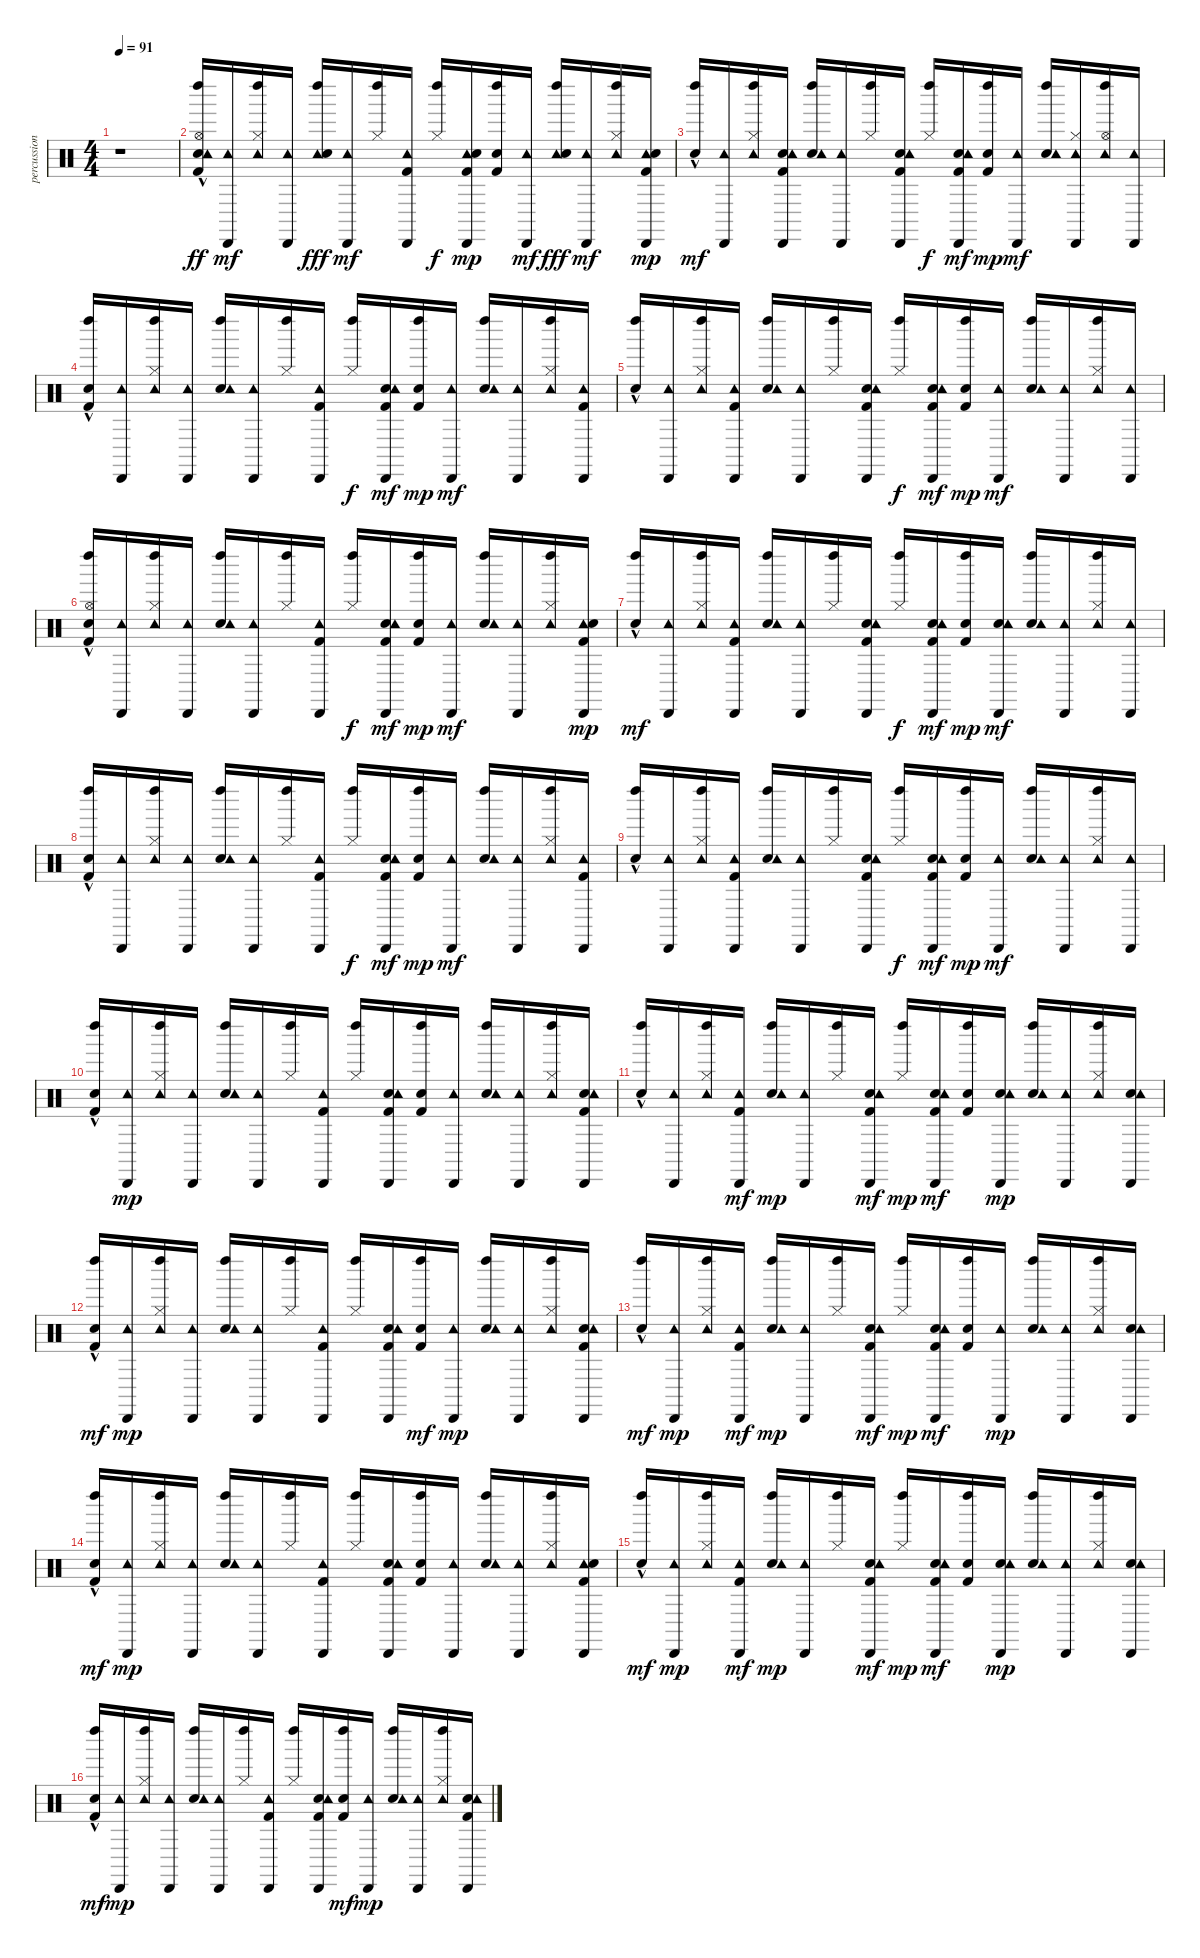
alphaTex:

\track ("percussion" "percussion") {instrument percussion}
\staff {score}
\articulation defaults
\ts (4 4)
\tempo 91
\clef neutral
\ks c
r.1{dy ff} |
("Electric Snare (hit)"{hac} "Tambourine (hit)" "Hi-Hat (open)" "Kick (hit) 2" "Left Maraca (hit)").16{volume 14 balance 8} ("Tambourine (hit)" "Cabasa (hit)").16{dy mf} ("Tambourine (hit)" "Hi-Hat (closed)" "Left Maraca (hit)").16 ("Tambourine (hit)" "Cabasa (hit)").16 ("Tambourine (hit)" "Electric Snare (hit)" "Left Maraca (hit)").16{dy fff} ("Tambourine (hit)" "Cabasa (hit)").16{dy mf} ("Hi-Hat (closed)" "Left Maraca (hit)").16 ("Tambourine (hit)" "Cabasa (hit)" "Kick (hit) 2").16 ("Hi-Hat (closed)" "Left Maraca (hit)").16{dy f} ("Tambourine (hit)" "Electric Snare (hit)" "Kick (hit) 2" "Cabasa (hit)").16{dy mp} ("Electric Snare (hit)" "Left Maraca (hit)" "Kick (hit) 2").16 ("Tambourine (hit)" "Cabasa (hit)").16{dy mf} ("Tambourine (hit)" "Electric Snare (hit)" "Left Maraca (hit)").16{dy fff} ("Tambourine (hit)" "Cabasa (hit)").16{dy mf} ("Tambourine (hit)" "Hi-Hat (closed)" "Left Maraca (hit)").16 ("Tambourine (hit)" "Electric Snare (hit)" "Kick (hit) 2" "Cabasa (hit)").16{dy mp} |
("Electric Snare (hit)"{hac} "Left Maraca (hit)").16{dy mf balance 8} ("Cabasa (hit)" "Tambourine (hit)").16 ("Hi-Hat (closed)" "Left Maraca (hit)" "Tambourine (hit)").16 ("Electric Snare (hit)" "Kick (hit) 2" "Cabasa (hit)" "Tambourine (hit)").16 ("Electric Snare (hit)" "Left Maraca (hit)" "Tambourine (hit)").16 ("Cabasa (hit)" "Tambourine (hit)").16 ("Hi-Hat (closed)" "Left Maraca (hit)").16 ("Electric Snare (hit)" "Kick (hit) 2" "Cabasa (hit)" "Tambourine (hit)").16 ("Hi-Hat (closed)" "Left Maraca (hit)").16{dy f} ("Electric Snare (hit)" "Kick (hit) 2" "Cabasa (hit)" "Tambourine (hit)").16{dy mf} ("Electric Snare (hit)" "Left Maraca (hit)" "Kick (hit) 2").16{dy mp} ("Cabasa (hit)" "Tambourine (hit)").16{dy mf} ("Electric Snare (hit)" "Left Maraca (hit)" "Tambourine (hit)").16 ("Hi-Hat (closed)" "Cabasa (hit)" "Tambourine (hit)").16 ("Tambourine (hit)" "Hi-Hat (open)" "Left Maraca (hit)").16 ("Cabasa (hit)" "Tambourine (hit)").16 |
("Electric Snare (hit)"{hac} "Left Maraca (hit)" "Kick (hit) 2").16 ("Cabasa (hit)" "Tambourine (hit)").16 ("Hi-Hat (closed)" "Left Maraca (hit)" "Tambourine (hit)").16 ("Cabasa (hit)" "Tambourine (hit)").16 ("Electric Snare (hit)" "Left Maraca (hit)" "Tambourine (hit)").16 ("Cabasa (hit)" "Tambourine (hit)").16 ("Hi-Hat (closed)" "Left Maraca (hit)").16 ("Cabasa (hit)" "Kick (hit) 2" "Tambourine (hit)").16 ("Hi-Hat (closed)" "Left Maraca (hit)").16{dy f} ("Electric Snare (hit)" "Cabasa (hit)" "Kick (hit) 2" "Tambourine (hit)").16{dy mf} ("Electric Snare (hit)" "Left Maraca (hit)" "Kick (hit) 2").16{dy mp} ("Cabasa (hit)" "Tambourine (hit)").16{dy mf} ("Electric Snare (hit)" "Left Maraca (hit)" "Tambourine (hit)").16 ("Cabasa (hit)" "Tambourine (hit)").16 ("Hi-Hat (closed)" "Left Maraca (hit)" "Tambourine (hit)").16 ("Cabasa (hit)" "Kick (hit) 2" "Tambourine (hit)").16 |
("Electric Snare (hit)"{hac} "Left Maraca (hit)").16 ("Cabasa (hit)" "Tambourine (hit)").16 ("Hi-Hat (closed)" "Left Maraca (hit)" "Tambourine (hit)").16 ("Cabasa (hit)" "Tambourine (hit)" "Kick (hit) 2").16 ("Electric Snare (hit)" "Left Maraca (hit)" "Tambourine (hit)").16 ("Cabasa (hit)" "Tambourine (hit)").16 ("Hi-Hat (closed)" "Left Maraca (hit)").16 ("Electric Snare (hit)" "Cabasa (hit)" "Tambourine (hit)" "Kick (hit) 2").16 ("Hi-Hat (closed)" "Left Maraca (hit)").16{dy f} ("Electric Snare (hit)" "Cabasa (hit)" "Tambourine (hit)" "Kick (hit) 2").16{dy mf} ("Electric Snare (hit)" "Left Maraca (hit)" "Kick (hit) 2").16{dy mp} ("Cabasa (hit)" "Tambourine (hit)").16{dy mf} ("Electric Snare (hit)" "Left Maraca (hit)" "Tambourine (hit)").16 ("Cabasa (hit)" "Tambourine (hit)").16 ("Tambourine (hit)" "Hi-Hat (closed)" "Left Maraca (hit)").16 ("Cabasa (hit)" "Tambourine (hit)").16 |
("Hi-Hat (open)" "Electric Snare (hit)"{hac} "Left Maraca (hit)" "Kick (hit) 2").16 ("Cabasa (hit)" "Tambourine (hit)").16 ("Hi-Hat (closed)" "Left Maraca (hit)" "Tambourine (hit)").16 ("Cabasa (hit)" "Tambourine (hit)").16 ("Electric Snare (hit)" "Left Maraca (hit)" "Tambourine (hit)").16 ("Cabasa (hit)" "Tambourine (hit)").16 ("Hi-Hat (closed)" "Left Maraca (hit)").16 ("Cabasa (hit)" "Kick (hit) 2" "Tambourine (hit)").16 ("Hi-Hat (closed)" "Left Maraca (hit)").16{dy f} ("Electric Snare (hit)" "Cabasa (hit)" "Kick (hit) 2" "Tambourine (hit)").16{dy mf} ("Electric Snare (hit)" "Left Maraca (hit)" "Kick (hit) 2").16{dy mp} ("Cabasa (hit)" "Tambourine (hit)").16{dy mf} ("Electric Snare (hit)" "Left Maraca (hit)" "Tambourine (hit)").16 ("Cabasa (hit)" "Tambourine (hit)").16 ("Tambourine (hit)" "Hi-Hat (closed)" "Left Maraca (hit)").16 ("Tambourine (hit)" "Electric Snare (hit)" "Cabasa (hit)" "Kick (hit) 2").16{dy mp} |
("Left Maraca (hit)" "Electric Snare (hit)"{hac}).16{dy mf} ("Tambourine (hit)" "Cabasa (hit)").16 ("Left Maraca (hit)" "Hi-Hat (closed)" "Tambourine (hit)").16 ("Tambourine (hit)" "Cabasa (hit)" "Kick (hit) 2").16 ("Left Maraca (hit)" "Electric Snare (hit)" "Tambourine (hit)").16 ("Tambourine (hit)" "Cabasa (hit)").16 ("Left Maraca (hit)" "Hi-Hat (closed)").16 ("Electric Snare (hit)" "Tambourine (hit)" "Cabasa (hit)" "Kick (hit) 2").16 ("Left Maraca (hit)" "Hi-Hat (closed)").16{dy f} ("Electric Snare (hit)" "Tambourine (hit)" "Cabasa (hit)" "Kick (hit) 2").16{dy mf} ("Left Maraca (hit)" "Electric Snare (hit)" "Kick (hit) 2").16{dy mp} ("Electric Snare (hit)" "Tambourine (hit)" "Cabasa (hit)").16{dy mf} ("Left Maraca (hit)" "Electric Snare (hit)" "Tambourine (hit)").16 ("Tambourine (hit)" "Cabasa (hit)").16 ("Left Maraca (hit)" "Tambourine (hit)" "Hi-Hat (closed)").16 ("Tambourine (hit)" "Cabasa (hit)").16 |
("Electric Snare (hit)"{hac} "Left Maraca (hit)" "Kick (hit) 2").16 ("Cabasa (hit)" "Tambourine (hit)").16 ("Hi-Hat (closed)" "Left Maraca (hit)" "Tambourine (hit)").16 ("Cabasa (hit)" "Tambourine (hit)").16 ("Electric Snare (hit)" "Left Maraca (hit)" "Tambourine (hit)").16 ("Cabasa (hit)" "Tambourine (hit)").16 ("Hi-Hat (closed)" "Left Maraca (hit)").16 ("Cabasa (hit)" "Kick (hit) 2" "Tambourine (hit)").16 ("Hi-Hat (closed)" "Left Maraca (hit)").16{dy f} ("Electric Snare (hit)" "Cabasa (hit)" "Kick (hit) 2" "Tambourine (hit)").16{dy mf} ("Electric Snare (hit)" "Left Maraca (hit)" "Kick (hit) 2").16{dy mp} ("Cabasa (hit)" "Tambourine (hit)").16{dy mf} ("Electric Snare (hit)" "Left Maraca (hit)" "Tambourine (hit)").16 ("Cabasa (hit)" "Tambourine (hit)").16 ("Tambourine (hit)" "Hi-Hat (closed)" "Left Maraca (hit)").16 ("Tambourine (hit)" "Cabasa (hit)" "Kick (hit) 2").16 |
("Left Maraca (hit)" "Electric Snare (hit)"{hac}).16 ("Tambourine (hit)" "Cabasa (hit)").16 ("Left Maraca (hit)" "Hi-Hat (closed)" "Tambourine (hit)").16 ("Tambourine (hit)" "Cabasa (hit)" "Kick (hit) 2").16 ("Left Maraca (hit)" "Electric Snare (hit)" "Tambourine (hit)").16 ("Tambourine (hit)" "Cabasa (hit)").16 ("Left Maraca (hit)" "Hi-Hat (closed)").16 ("Electric Snare (hit)" "Tambourine (hit)" "Cabasa (hit)" "Kick (hit) 2").16 ("Left Maraca (hit)" "Hi-Hat (closed)").16{dy f} ("Electric Snare (hit)" "Tambourine (hit)" "Cabasa (hit)" "Kick (hit) 2").16{dy mf} ("Left Maraca (hit)" "Electric Snare (hit)" "Kick (hit) 2").16{dy mp} ("Tambourine (hit)" "Cabasa (hit)").16{dy mf} ("Left Maraca (hit)" "Electric Snare (hit)" "Tambourine (hit)").16 ("Tambourine (hit)" "Cabasa (hit)").16 ("Left Maraca (hit)" "Tambourine (hit)" "Hi-Hat (closed)").16{volume 12} ("Tambourine (hit)" "Cabasa (hit)").16{volume 9} |
("Left Maraca (hit)" "Electric Snare (hit)"{hac} "Kick (hit) 2").16{volume 11} ("Cabasa (hit)" "Tambourine (hit)").16{dy mp volume 10} ("Hi-Hat (closed)" "Left Maraca (hit)" "Tambourine (hit)").16 ("Cabasa (hit)" "Tambourine (hit)").16 ("Electric Snare (hit)" "Left Maraca (hit)" "Tambourine (hit)").16 ("Cabasa (hit)" "Tambourine (hit)").16 ("Hi-Hat (closed)" "Left Maraca (hit)").16 ("Kick (hit) 2" "Cabasa (hit)" "Tambourine (hit)").16 ("Hi-Hat (closed)" "Left Maraca (hit)").16 ("Electric Snare (hit)" "Kick (hit) 2" "Cabasa (hit)" "Tambourine (hit)").16 ("Electric Snare (hit)" "Kick (hit) 2" "Left Maraca (hit)").16 ("Cabasa (hit)" "Tambourine (hit)").16 ("Electric Snare (hit)" "Tambourine (hit)" "Left Maraca (hit)").16 ("Cabasa (hit)" "Tambourine (hit)").16 ("Hi-Hat (closed)" "Left Maraca (hit)" "Tambourine (hit)").16 ("Electric Snare (hit)" "Kick (hit) 2" "Cabasa (hit)" "Tambourine (hit)").16 |
("Electric Snare (hit)"{hac} "Left Maraca (hit)").16 ("Tambourine (hit)" "Cabasa (hit)").16 ("Hi-Hat (closed)" "Tambourine (hit)" "Left Maraca (hit)").16 ("Tambourine (hit)" "Cabasa (hit)" "Kick (hit) 2").16{dy mf} ("Electric Snare (hit)" "Tambourine (hit)" "Left Maraca (hit)").16{dy mp} ("Tambourine (hit)" "Cabasa (hit)").16 ("Hi-Hat (closed)" "Left Maraca (hit)").16 ("Electric Snare (hit)" "Tambourine (hit)" "Cabasa (hit)" "Kick (hit) 2").16{dy mf} ("Hi-Hat (closed)" "Left Maraca (hit)").16{dy mp} ("Electric Snare (hit)" "Tambourine (hit)" "Cabasa (hit)" "Kick (hit) 2").16{dy mf} ("Electric Snare (hit)" "Left Maraca (hit)" "Kick (hit) 2").16 ("Electric Snare (hit)" "Tambourine (hit)" "Cabasa (hit)").16{dy mp} ("Electric Snare (hit)" "Tambourine (hit)" "Left Maraca (hit)").16 ("Tambourine (hit)" "Cabasa (hit)").16 ("Tambourine (hit)" "Hi-Hat (closed)" "Left Maraca (hit)").16 ("Electric Snare (hit)" "Tambourine (hit)" "Cabasa (hit)").16 |
("Left Maraca (hit)" "Electric Snare (hit)"{hac} "Kick (hit) 2").16{dy mf} ("Tambourine (hit)" "Cabasa (hit)").16{dy mp} ("Hi-Hat (closed)" "Tambourine (hit)" "Left Maraca (hit)").16 ("Tambourine (hit)" "Cabasa (hit)").16 ("Electric Snare (hit)" "Tambourine (hit)" "Left Maraca (hit)").16 ("Tambourine (hit)" "Cabasa (hit)").16 ("Hi-Hat (closed)" "Left Maraca (hit)").16 ("Kick (hit) 2" "Tambourine (hit)" "Cabasa (hit)").16 ("Hi-Hat (closed)" "Left Maraca (hit)").16 ("Electric Snare (hit)" "Kick (hit) 2" "Tambourine (hit)" "Cabasa (hit)").16 ("Electric Snare (hit)" "Left Maraca (hit)" "Kick (hit) 2").16{dy mf} ("Tambourine (hit)" "Cabasa (hit)").16{dy mp} ("Electric Snare (hit)" "Tambourine (hit)" "Left Maraca (hit)").16 ("Tambourine (hit)" "Cabasa (hit)").16 ("Tambourine (hit)" "Hi-Hat (closed)" "Left Maraca (hit)").16 ("Electric Snare (hit)" "Tambourine (hit)" "Kick (hit) 2" "Cabasa (hit)").16 |
("Left Maraca (hit)" "Electric Snare (hit)"{hac}).16{dy mf} ("Cabasa (hit)" "Tambourine (hit)").16{dy mp} ("Hi-Hat (closed)" "Left Maraca (hit)" "Tambourine (hit)").16 ("Cabasa (hit)" "Tambourine (hit)" "Kick (hit) 2").16{dy mf} ("Electric Snare (hit)" "Left Maraca (hit)" "Tambourine (hit)").16{dy mp} ("Cabasa (hit)" "Tambourine (hit)").16 ("Hi-Hat (closed)" "Left Maraca (hit)").16 ("Electric Snare (hit)" "Cabasa (hit)" "Tambourine (hit)" "Kick (hit) 2").16{dy mf} ("Hi-Hat (closed)" "Left Maraca (hit)").16{dy mp} ("Electric Snare (hit)" "Cabasa (hit)" "Tambourine (hit)" "Kick (hit) 2").16{dy mf} ("Electric Snare (hit)" "Left Maraca (hit)" "Kick (hit) 2").16 ("Cabasa (hit)" "Tambourine (hit)").16{dy mp} ("Electric Snare (hit)" "Left Maraca (hit)" "Tambourine (hit)").16 ("Cabasa (hit)" "Tambourine (hit)").16 ("Tambourine (hit)" "Hi-Hat (closed)" "Left Maraca (hit)").16 ("Electric Snare (hit)" "Tambourine (hit)" "Cabasa (hit)").16 |
("Kick (hit) 2" "Left Maraca (hit)" "Electric Snare (hit)"{hac}).16{dy mf} ("Cabasa (hit)" "Tambourine (hit)").16{dy mp} ("Hi-Hat (closed)" "Left Maraca (hit)" "Tambourine (hit)").16 ("Cabasa (hit)" "Tambourine (hit)").16 ("Electric Snare (hit)" "Left Maraca (hit)" "Tambourine (hit)").16 ("Cabasa (hit)" "Tambourine (hit)").16 ("Hi-Hat (closed)" "Left Maraca (hit)").16 ("Kick (hit) 2" "Cabasa (hit)" "Tambourine (hit)").16 ("Hi-Hat (closed)" "Left Maraca (hit)").16 ("Kick (hit) 2" "Electric Snare (hit)" "Cabasa (hit)" "Tambourine (hit)").16 ("Kick (hit) 2" "Electric Snare (hit)" "Left Maraca (hit)").16 ("Cabasa (hit)" "Tambourine (hit)").16 ("Electric Snare (hit)" "Left Maraca (hit)" "Tambourine (hit)").16 ("Cabasa (hit)" "Tambourine (hit)").16 ("Tambourine (hit)" "Hi-Hat (closed)" "Left Maraca (hit)").16 ("Kick (hit) 2" "Tambourine (hit)" "Electric Snare (hit)" "Cabasa (hit)").16 |
("Left Maraca (hit)" "Electric Snare (hit)"{hac}).16{dy mf} ("Cabasa (hit)" "Tambourine (hit)").16{dy mp} ("Hi-Hat (closed)" "Left Maraca (hit)" "Tambourine (hit)").16 ("Cabasa (hit)" "Tambourine (hit)" "Kick (hit) 2").16{dy mf} ("Electric Snare (hit)" "Left Maraca (hit)" "Tambourine (hit)").16{dy mp} ("Cabasa (hit)" "Tambourine (hit)").16 ("Hi-Hat (closed)" "Left Maraca (hit)").16 ("Electric Snare (hit)" "Cabasa (hit)" "Tambourine (hit)" "Kick (hit) 2").16{dy mf} ("Hi-Hat (closed)" "Left Maraca (hit)").16{dy mp} ("Electric Snare (hit)" "Cabasa (hit)" "Tambourine (hit)" "Kick (hit) 2").16{dy mf} ("Electric Snare (hit)" "Left Maraca (hit)" "Kick (hit) 2").16 ("Electric Snare (hit)" "Cabasa (hit)" "Tambourine (hit)").16{dy mp} ("Electric Snare (hit)" "Left Maraca (hit)" "Tambourine (hit)").16 ("Cabasa (hit)" "Tambourine (hit)").16 ("Tambourine (hit)" "Hi-Hat (closed)" "Left Maraca (hit)").16 ("Electric Snare (hit)" "Tambourine (hit)" "Cabasa (hit)").16 |
("Left Maraca (hit)" "Electric Snare (hit)"{hac} "Kick (hit) 2").16{dy mf} ("Tambourine (hit)" "Cabasa (hit)").16{dy mp} ("Hi-Hat (closed)" "Tambourine (hit)" "Left Maraca (hit)").16 ("Tambourine (hit)" "Cabasa (hit)").16 ("Electric Snare (hit)" "Tambourine (hit)" "Left Maraca (hit)").16 ("Tambourine (hit)" "Cabasa (hit)").16 ("Hi-Hat (closed)" "Left Maraca (hit)").16 ("Kick (hit) 2" "Tambourine (hit)" "Cabasa (hit)").16 ("Hi-Hat (closed)" "Left Maraca (hit)").16 ("Electric Snare (hit)" "Kick (hit) 2" "Tambourine (hit)" "Cabasa (hit)").16 ("Electric Snare (hit)" "Left Maraca (hit)" "Kick (hit) 2").16{dy mf} ("Tambourine (hit)" "Cabasa (hit)").16{dy mp} ("Electric Snare (hit)" "Tambourine (hit)" "Left Maraca (hit)").16 ("Tambourine (hit)" "Cabasa (hit)").16 ("Tambourine (hit)" "Hi-Hat (closed)" "Left Maraca (hit)").16 ("Electric Snare (hit)" "Tambourine (hit)" "Kick (hit) 2" "Cabasa (hit)").16
